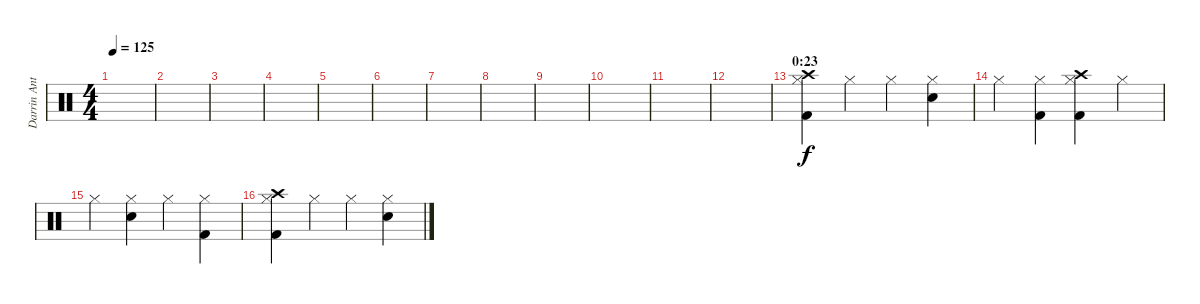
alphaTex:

\track ("Darrin Anthony (Drums)" "Darrin Ant") {instrument percussion}
\staff {score}
\articulation defaults
\ts (4 4)
\tempo 125
\clef neutral
\ks c
|
|
|
|
|
|
|
|
|
|
|
|
\section ("" "0:23")
("Kick (hit) 2" "Hi-Hat (closed)" "Crash high (hit)").4 "Hi-Hat (closed)".4 "Hi-Hat (closed)".4 ("Electric Snare (hit)" "Hi-Hat (closed)").4 |
"Hi-Hat (closed)".4 ("Kick (hit) 2" "Hi-Hat (closed)").4 ("Kick (hit) 2" "Hi-Hat (closed)" "Crash high (hit)").4 "Hi-Hat (closed)".4 |
"Hi-Hat (closed)".4 ("Electric Snare (hit)" "Hi-Hat (closed)").4 "Hi-Hat (closed)".4 ("Kick (hit) 2" "Hi-Hat (closed)").4 |
("Kick (hit) 2" "Hi-Hat (closed)" "Crash high (hit)").4 "Hi-Hat (closed)".4 "Hi-Hat (closed)".4 ("Electric Snare (hit)" "Hi-Hat (closed)").4
